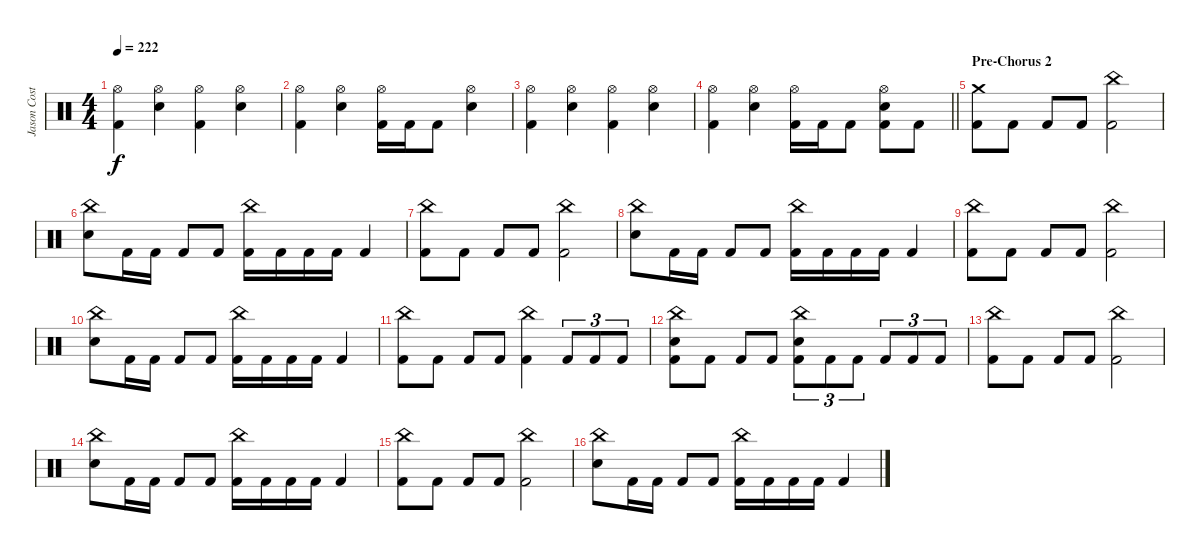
\track ("Jason Costa" "Jason Cost") {instrument percussion}
\staff {score}
\articulation defaults
\ts (4 4)
\tempo 222
\clef neutral
\ks c
("Hi-Hat (open)" "Kick (hit) 2").4{dy f} ("Hi-Hat (open)" "Electric Snare (hit)").4 ("Hi-Hat (open)" "Kick (hit) 2").4 ("Hi-Hat (open)" "Electric Snare (hit)").4 |
("Hi-Hat (open)" "Kick (hit) 2").4 ("Hi-Hat (open)" "Electric Snare (hit)").4 ("Hi-Hat (open)" "Kick (hit) 2").16 "Kick (hit) 2".16 "Kick (hit) 2".8 ("Hi-Hat (open)" "Electric Snare (hit)").4 |
("Hi-Hat (open)" "Kick (hit) 2").4 ("Hi-Hat (open)" "Electric Snare (hit)").4 ("Hi-Hat (open)" "Kick (hit) 2").4 ("Hi-Hat (open)" "Electric Snare (hit)").4 |
\barLineRight lightlight
("Hi-Hat (open)" "Kick (hit) 2").4 ("Hi-Hat (open)" "Electric Snare (hit)").4 ("Hi-Hat (open)" "Kick (hit) 2").16 "Kick (hit) 2".16 "Kick (hit) 2".8 ("Hi-Hat (open)" "Electric Snare (hit)" "Kick (hit) 2").8 "Kick (hit) 2".8 |
\section ("" "Pre-Chorus 2")
("Crash medium (hit)" "Kick (hit) 2").8 "Kick (hit) 2".8 "Kick (hit) 2".8 "Kick (hit) 2".8 ("China (hit)" "Kick (hit) 2").2 |
("China (hit)" "Electric Snare (hit)").8 "Kick (hit) 2".16 "Kick (hit) 2".16 "Kick (hit) 2".8 "Kick (hit) 2".8 ("China (hit)" "Kick (hit) 2").16 "Kick (hit) 2".16 "Kick (hit) 2".16 "Kick (hit) 2".16 "Kick (hit) 2".4 |
("China (hit)" "Kick (hit) 2").8 "Kick (hit) 2".8 "Kick (hit) 2".8 "Kick (hit) 2".8 ("China (hit)" "Kick (hit) 2").2 |
("China (hit)" "Electric Snare (hit)").8 "Kick (hit) 2".16 "Kick (hit) 2".16 "Kick (hit) 2".8 "Kick (hit) 2".8 ("China (hit)" "Kick (hit) 2").16 "Kick (hit) 2".16 "Kick (hit) 2".16 "Kick (hit) 2".16 "Kick (hit) 2".4 |
("China (hit)" "Kick (hit) 2").8 "Kick (hit) 2".8 "Kick (hit) 2".8 "Kick (hit) 2".8 ("China (hit)" "Kick (hit) 2").2 |
("China (hit)" "Electric Snare (hit)").8 "Kick (hit) 2".16 "Kick (hit) 2".16 "Kick (hit) 2".8 "Kick (hit) 2".8 ("China (hit)" "Kick (hit) 2").16 "Kick (hit) 2".16 "Kick (hit) 2".16 "Kick (hit) 2".16 "Kick (hit) 2".4 |
("China (hit)" "Kick (hit) 2").8 "Kick (hit) 2".8 "Kick (hit) 2".8 "Kick (hit) 2".8 ("China (hit)" "Kick (hit) 2").4 "Kick (hit) 2".8{tu (3 2)} "Kick (hit) 2".8{tu (3 2)} "Kick (hit) 2".8{tu (3 2)} |
("China (hit)" "Electric Snare (hit)" "Kick (hit) 2").8 "Kick (hit) 2".8 "Kick (hit) 2".8 "Kick (hit) 2".8 ("China (hit)" "Electric Snare (hit)" "Kick (hit) 2").8{tu (3 2)} "Kick (hit) 2".8{tu (3 2)} "Kick (hit) 2".8{tu (3 2)} "Kick (hit) 2".8{tu (3 2)} "Kick (hit) 2".8{tu (3 2)} "Kick (hit) 2".8{tu (3 2)} |
("China (hit)" "Kick (hit) 2").8 "Kick (hit) 2".8 "Kick (hit) 2".8 "Kick (hit) 2".8 ("China (hit)" "Kick (hit) 2").2 |
("China (hit)" "Electric Snare (hit)").8 "Kick (hit) 2".16 "Kick (hit) 2".16 "Kick (hit) 2".8 "Kick (hit) 2".8 ("China (hit)" "Kick (hit) 2").16 "Kick (hit) 2".16 "Kick (hit) 2".16 "Kick (hit) 2".16 "Kick (hit) 2".4 |
("China (hit)" "Kick (hit) 2").8 "Kick (hit) 2".8 "Kick (hit) 2".8 "Kick (hit) 2".8 ("China (hit)" "Kick (hit) 2").2 |
("China (hit)" "Electric Snare (hit)").8 "Kick (hit) 2".16 "Kick (hit) 2".16 "Kick (hit) 2".8 "Kick (hit) 2".8 ("China (hit)" "Kick (hit) 2").16 "Kick (hit) 2".16 "Kick (hit) 2".16 "Kick (hit) 2".16 "Kick (hit) 2".4
